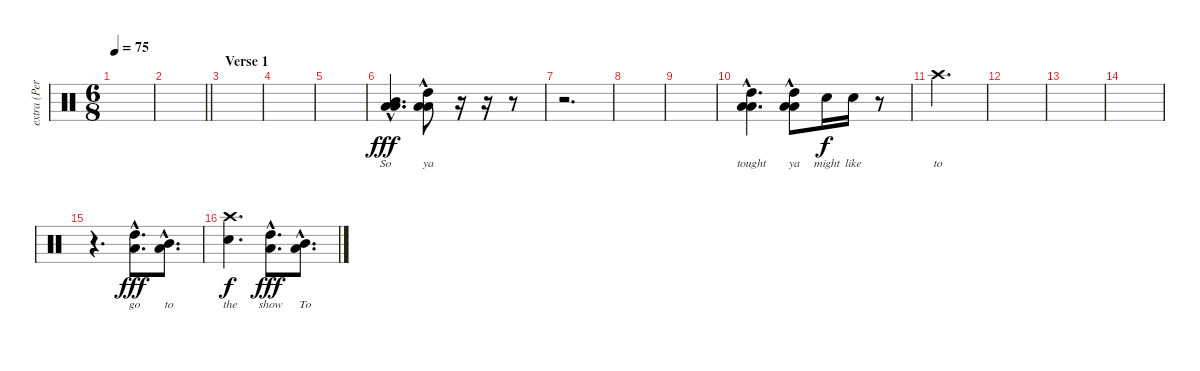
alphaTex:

\track ("extra (Percusión)" "extra (Per") {instrument percussion}
\staff {score}
\articulation defaults
\ts (6 8)
\tempo 75
\clef neutral
\ks c
|
\barLineRight lightlight
|
\section ("" "Verse 1")
|
|
|
("Low Tom (hit)"{hac} "Low Floor Tom (hit)"{hac} "Mid Tom (hit)"{hac}).4{d lyrics (0 "So") lyrics (1 "") lyrics (2 "") lyrics (3 "") lyrics (4 "") dy fff} ("Low Floor Tom (hit)"{hac} "Low Tom (hit)"{hac} "High Tom (hit)"{hac}).8{lyrics (0 "ya") lyrics (1 "") lyrics (2 "") lyrics (3 "") lyrics (4 "")} r.16 r.16 r.8 |
r.2{d} |
|
|
("Low Tom (hit)"{hac} "Low Floor Tom (hit)"{hac} "High Tom (hit)"{hac}).4{d lyrics (0 "tought") lyrics (1 "") lyrics (2 "") lyrics (3 "") lyrics (4 "")} ("Low Floor Tom (hit)"{hac} "Low Tom (hit)"{hac} "High Tom (hit)"{hac}).8{lyrics (0 "ya") lyrics (1 "") lyrics (2 "") lyrics (3 "") lyrics (4 "")} "Electric Snare (hit)".16{lyrics (0 "might") lyrics (1 "") lyrics (2 "") lyrics (3 "") lyrics (4 "") dy f} "Electric Snare (hit)".16{lyrics (0 "like") lyrics (1 "") lyrics (2 "") lyrics (3 "") lyrics (4 "")} r.8 |
"Crash high (hit)".2{d lyrics (0 "to") lyrics (1 "") lyrics (2 "") lyrics (3 "") lyrics (4 "")} |
|
|
|
r.4{d} ("Low Floor Tom (hit)"{hac} "High Tom (hit)"{hac}).8{d lyrics (0 "go") lyrics (1 "") lyrics (2 "") lyrics (3 "") lyrics (4 "") dy fff} ("Low Floor Tom (hit)"{hac} "Mid Tom (hit)"{hac}).8{d lyrics (0 "to") lyrics (1 "") lyrics (2 "") lyrics (3 "") lyrics (4 "")} |
("Crash high (hit)" "Electric Snare (hit)").4{d lyrics (0 "the") lyrics (1 "") lyrics (2 "") lyrics (3 "") lyrics (4 "") dy f} ("Low Floor Tom (hit)"{hac} "High Tom (hit)"{hac}).8{d lyrics (0 "show") lyrics (1 "") lyrics (2 "") lyrics (3 "") lyrics (4 "") dy fff} ("Low Floor Tom (hit)"{hac} "Mid Tom (hit)"{hac}).8{d lyrics (0 "To") lyrics (1 "") lyrics (2 "") lyrics (3 "") lyrics (4 "")}
